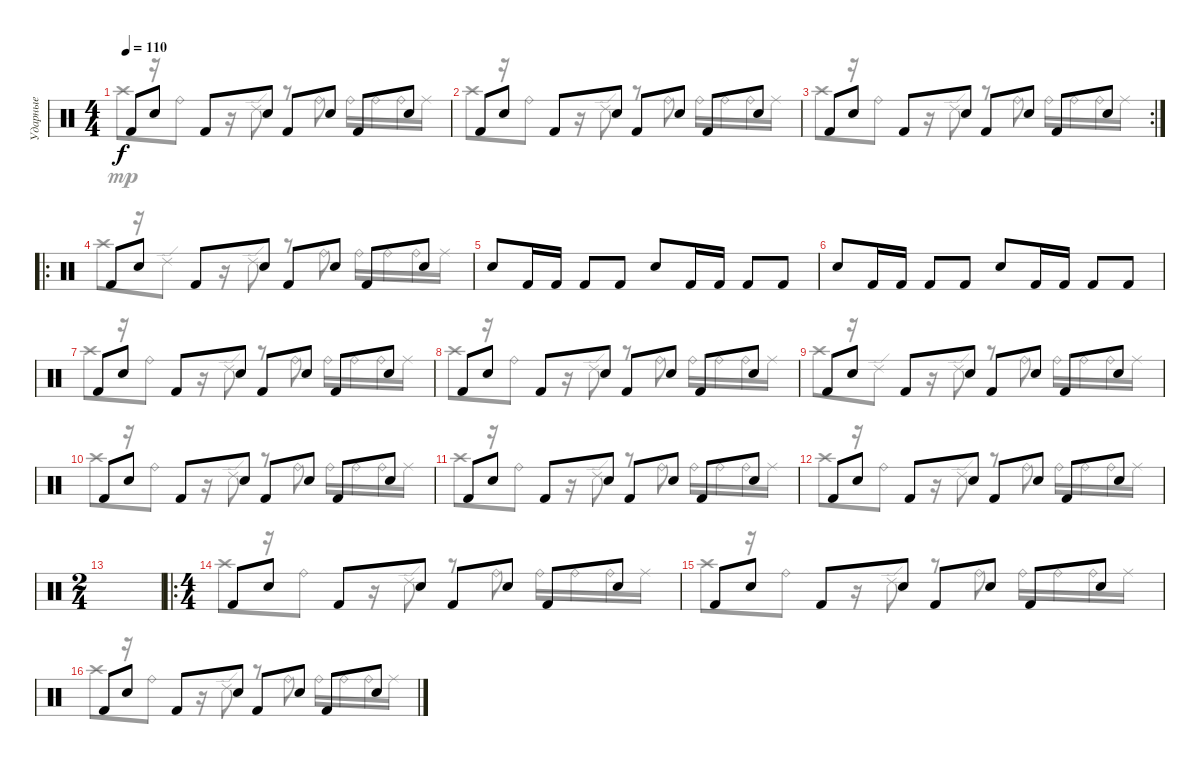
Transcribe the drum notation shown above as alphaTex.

\track ("Ударные" "Ударные") {instrument percussion}
\staff {score}
\articulation defaults
\voice
\ts (4 4)
\tempo 110
\clef neutral
\ks c "Kick (hit) 2".8{dy f} "Snare (hit) 2".8 "Kick (hit) 2".8 "Snare (hit) 2".8 "Kick (hit) 2".8 "Snare (hit) 2".8 "Kick (hit) 2".8 "Snare (hit) 2".8
|
"Kick (hit) 2".8 "Snare (hit) 2".8 "Kick (hit) 2".8 "Snare (hit) 2".8 "Kick (hit) 2".8 "Snare (hit) 2".8 "Kick (hit) 2".8 "Snare (hit) 2".8 |
\rc 2 "Kick (hit) 2".8 "Snare (hit) 2".8 "Kick (hit) 2".8 "Snare (hit) 2".8 "Kick (hit) 2".8 "Snare (hit) 2".8 "Kick (hit) 2".8 "Snare (hit) 2".8
|
\ro "Kick (hit) 2".8 "Snare (hit) 2".8 "Kick (hit) 2".8 "Snare (hit) 2".8 "Kick (hit) 2".8 "Snare (hit) 2".8 "Kick (hit) 2".8 "Snare (hit) 2".8
|
"Snare (hit) 2".8 "Kick (hit) 2".16 "Kick (hit) 2".16 "Kick (hit) 2".8 "Kick (hit) 2".8 "Snare (hit) 2".8 "Kick (hit) 2".16 "Kick (hit) 2".16 "Kick (hit) 2".8 "Kick (hit) 2".8 |
"Snare (hit) 2".8 "Kick (hit) 2".16 "Kick (hit) 2".16 "Kick (hit) 2".8 "Kick (hit) 2".8 "Snare (hit) 2".8 "Kick (hit) 2".16 "Kick (hit) 2".16 "Kick (hit) 2".8 "Kick (hit) 2".8 |
"Kick (hit) 2".8 "Snare (hit) 2".8 "Kick (hit) 2".8 "Snare (hit) 2".8 "Kick (hit) 2".8 "Snare (hit) 2".8 "Kick (hit) 2".8 "Snare (hit) 2".8 |
"Kick (hit) 2".8 "Snare (hit) 2".8 "Kick (hit) 2".8 "Snare (hit) 2".8 "Kick (hit) 2".8 "Snare (hit) 2".8 "Kick (hit) 2".8 "Snare (hit) 2".8 |
"Kick (hit) 2".8 "Snare (hit) 2".8 "Kick (hit) 2".8 "Snare (hit) 2".8 "Kick (hit) 2".8 "Snare (hit) 2".8 "Kick (hit) 2".8 "Snare (hit) 2".8 |
"Kick (hit) 2".8 "Snare (hit) 2".8 "Kick (hit) 2".8 "Snare (hit) 2".8 "Kick (hit) 2".8 "Snare (hit) 2".8 "Kick (hit) 2".8 "Snare (hit) 2".8 |
"Kick (hit) 2".8 "Snare (hit) 2".8 "Kick (hit) 2".8 "Snare (hit) 2".8 "Kick (hit) 2".8 "Snare (hit) 2".8 "Kick (hit) 2".8 "Snare (hit) 2".8 |
"Kick (hit) 2".8 "Snare (hit) 2".8 "Kick (hit) 2".8 "Snare (hit) 2".8 "Kick (hit) 2".8 "Snare (hit) 2".8 "Kick (hit) 2".8 "Snare (hit) 2".8 |
\ts (2 4)
|
\ro
\ts (4 4)
"Kick (hit) 2".8 "Snare (hit) 2".8 "Kick (hit) 2".8 "Snare (hit) 2".8 "Kick (hit) 2".8 "Snare (hit) 2".8 "Kick (hit) 2".8 "Snare (hit) 2".8 |
"Kick (hit) 2".8 "Snare (hit) 2".8 "Kick (hit) 2".8 "Snare (hit) 2".8 "Kick (hit) 2".8 "Snare (hit) 2".8 "Kick (hit) 2".8 "Snare (hit) 2".8 |
"Kick (hit) 2".8 "Snare (hit) 2".8 "Kick (hit) 2".8 "Snare (hit) 2".8 "Kick (hit) 2".8 "Snare (hit) 2".8 "Kick (hit) 2".8 "Snare (hit) 2".8
\voice
\clef neutral
\ottava regular
\simile none
\ks c "Crash high (hit)".8{dy mp}
r.16 "Ride (bell)".8 r.16 "Ride (edge) 2".8 r.8 "Ride (bell)".8 "Ride (bell)".16 "Ride (bell)".16 "Ride (bell)".16 "Ride (middle)".16 |
"Crash high (hit)".8 r.16 "Ride (bell)".8 r.16 "Ride (edge) 2".8 r.8 "Ride (bell)".8 "Ride (bell)".16 "Ride (bell)".16 "Ride (bell)".16 "Ride (middle)".16 |
"Crash high (hit)".8 r.16 "Ride (bell)".8 r.16 "Ride (edge) 2".8 r.8 "Ride (bell)".8 "Ride (bell)".16 "Ride (bell)".16 "Ride (bell)".16 "Ride (middle)".16 |
"Crash high (hit)".8 r.16 "Ride (edge) 2".8 r.16 "Ride (edge) 2".8 r.8 "Ride (bell)".8 "Ride (bell)".16 "Ride (bell)".16 "Ride (bell)".16 "Ride (middle)".16 |
|
|
"Crash high (hit)".8 r.16 "Ride (bell)".8 r.16 "Ride (edge) 2".8 r.8 "Ride (bell)".8 "Ride (bell)".16 "Ride (bell)".16 "Ride (bell)".16 "Ride (middle)".16 |
"Crash high (hit)".8 r.16 "Ride (bell)".8 r.16 "Ride (edge) 2".8 r.8 "Ride (bell)".8 "Ride (bell)".16 "Ride (bell)".16 "Ride (bell)".16 "Ride (middle)".16 |
"Crash high (hit)".8 r.16 "Ride (edge) 2".8 r.16 "Ride (edge) 2".8 r.8 "Ride (bell)".8 "Ride (bell)".16 "Ride (bell)".16 "Ride (bell)".16 "Ride (middle)".16 |
"Crash high (hit)".8 r.16 "Ride (bell)".8 r.16 "Ride (edge) 2".8 r.8 "Ride (bell)".8 "Ride (bell)".16 "Ride (bell)".16 "Ride (bell)".16 "Ride (middle)".16 |
"Crash high (hit)".8 r.16 "Ride (bell)".8 r.16 "Ride (edge) 2".8 r.8 "Ride (bell)".8 "Ride (bell)".16 "Ride (bell)".16 "Ride (bell)".16 "Ride (middle)".16 |
"Crash high (hit)".8 r.16 "Ride (bell)".8 r.16 "Ride (edge) 2".8 r.8 "Ride (bell)".8 "Ride (bell)".16 "Ride (bell)".16 "Ride (bell)".16 "Ride (middle)".16 |
|
"Crash high (hit)".8 r.16 "Ride (bell)".8 r.16 "Ride (edge) 2".8 r.8 "Ride (bell)".8 "Ride (bell)".16 "Ride (bell)".16 "Ride (bell)".16 "Ride (middle)".16 |
"Crash high (hit)".8 r.16 "Ride (bell)".8 r.16 "Ride (edge) 2".8 r.8 "Ride (bell)".8 "Ride (bell)".16 "Ride (bell)".16 "Ride (bell)".16 "Ride (middle)".16 |
"Crash high (hit)".8 r.16 "Ride (bell)".8 r.16 "Ride (edge) 2".8 r.8 "Ride (bell)".8 "Ride (bell)".16 "Ride (bell)".16 "Ride (bell)".16 "Ride (middle)".16
